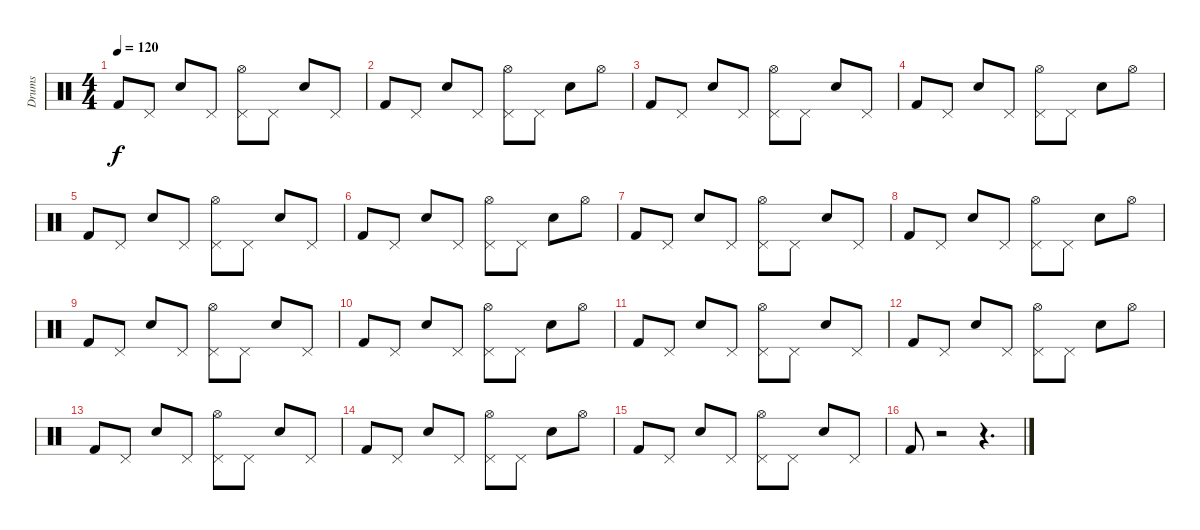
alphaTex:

\track ("Drums" "Drums") {instrument percussion}
\staff {score}
\articulation defaults
\ts (4 4)
\tempo 120
\clef neutral
\ks c "Kick (hit) 2".8{dy f} "Pedal Hi-Hat (hit)".8 "Snare (hit) 2".8 "Pedal Hi-Hat (hit)".8
("Pedal Hi-Hat (hit)" "Hi-Hat (open)").8 "Pedal Hi-Hat (hit)".8 "Snare (hit) 2".8 "Pedal Hi-Hat (hit)".8 |
"Kick (hit) 2".8 "Pedal Hi-Hat (hit)".8 "Snare (hit) 2".8 "Pedal Hi-Hat (hit)".8 ("Pedal Hi-Hat (hit)" "Hi-Hat (open)").8 "Pedal Hi-Hat (hit)".8 "Snare (hit) 2".8 "Hi-Hat (open)".8 |
"Kick (hit) 2".8 "Pedal Hi-Hat (hit)".8 "Snare (hit) 2".8 "Pedal Hi-Hat (hit)".8 ("Pedal Hi-Hat (hit)" "Hi-Hat (open)").8 "Pedal Hi-Hat (hit)".8 "Snare (hit) 2".8 "Pedal Hi-Hat (hit)".8 |
"Kick (hit) 2".8 "Pedal Hi-Hat (hit)".8 "Snare (hit) 2".8 "Pedal Hi-Hat (hit)".8 ("Pedal Hi-Hat (hit)" "Hi-Hat (open)").8 "Pedal Hi-Hat (hit)".8 "Snare (hit) 2".8 "Hi-Hat (open)".8 |
"Kick (hit) 2".8 "Pedal Hi-Hat (hit)".8 "Snare (hit) 2".8 "Pedal Hi-Hat (hit)".8 ("Pedal Hi-Hat (hit)" "Hi-Hat (open)").8 "Pedal Hi-Hat (hit)".8 "Snare (hit) 2".8 "Pedal Hi-Hat (hit)".8 |
"Kick (hit) 2".8 "Pedal Hi-Hat (hit)".8 "Snare (hit) 2".8 "Pedal Hi-Hat (hit)".8 ("Pedal Hi-Hat (hit)" "Hi-Hat (open)").8 "Pedal Hi-Hat (hit)".8 "Snare (hit) 2".8 "Hi-Hat (open)".8 |
"Kick (hit) 2".8 "Pedal Hi-Hat (hit)".8 "Snare (hit) 2".8 "Pedal Hi-Hat (hit)".8 ("Pedal Hi-Hat (hit)" "Hi-Hat (open)").8 "Pedal Hi-Hat (hit)".8 "Snare (hit) 2".8 "Pedal Hi-Hat (hit)".8 |
"Kick (hit) 2".8 "Pedal Hi-Hat (hit)".8 "Snare (hit) 2".8 "Pedal Hi-Hat (hit)".8 ("Pedal Hi-Hat (hit)" "Hi-Hat (open)").8 "Pedal Hi-Hat (hit)".8 "Snare (hit) 2".8 "Hi-Hat (open)".8 |
"Kick (hit) 2".8 "Pedal Hi-Hat (hit)".8 "Snare (hit) 2".8 "Pedal Hi-Hat (hit)".8 ("Pedal Hi-Hat (hit)" "Hi-Hat (open)").8 "Pedal Hi-Hat (hit)".8 "Snare (hit) 2".8 "Pedal Hi-Hat (hit)".8 |
"Kick (hit) 2".8 "Pedal Hi-Hat (hit)".8 "Snare (hit) 2".8 "Pedal Hi-Hat (hit)".8 ("Pedal Hi-Hat (hit)" "Hi-Hat (open)").8 "Pedal Hi-Hat (hit)".8 "Snare (hit) 2".8 "Hi-Hat (open)".8 |
"Kick (hit) 2".8 "Pedal Hi-Hat (hit)".8 "Snare (hit) 2".8 "Pedal Hi-Hat (hit)".8 ("Pedal Hi-Hat (hit)" "Hi-Hat (open)").8 "Pedal Hi-Hat (hit)".8 "Snare (hit) 2".8 "Pedal Hi-Hat (hit)".8 |
"Kick (hit) 2".8 "Pedal Hi-Hat (hit)".8 "Snare (hit) 2".8 "Pedal Hi-Hat (hit)".8 ("Pedal Hi-Hat (hit)" "Hi-Hat (open)").8 "Pedal Hi-Hat (hit)".8 "Snare (hit) 2".8 "Hi-Hat (open)".8 |
"Kick (hit) 2".8 "Pedal Hi-Hat (hit)".8 "Snare (hit) 2".8 "Pedal Hi-Hat (hit)".8 ("Pedal Hi-Hat (hit)" "Hi-Hat (open)").8 "Pedal Hi-Hat (hit)".8 "Snare (hit) 2".8 "Pedal Hi-Hat (hit)".8 |
"Kick (hit) 2".8 "Pedal Hi-Hat (hit)".8 "Snare (hit) 2".8 "Pedal Hi-Hat (hit)".8 ("Pedal Hi-Hat (hit)" "Hi-Hat (open)").8 "Pedal Hi-Hat (hit)".8 "Snare (hit) 2".8 "Hi-Hat (open)".8 |
"Kick (hit) 2".8 "Pedal Hi-Hat (hit)".8 "Snare (hit) 2".8 "Pedal Hi-Hat (hit)".8 ("Pedal Hi-Hat (hit)" "Hi-Hat (open)").8 "Pedal Hi-Hat (hit)".8 "Snare (hit) 2".8 "Pedal Hi-Hat (hit)".8 |
"Kick (hit) 2".8 r.2 r.4{d}
